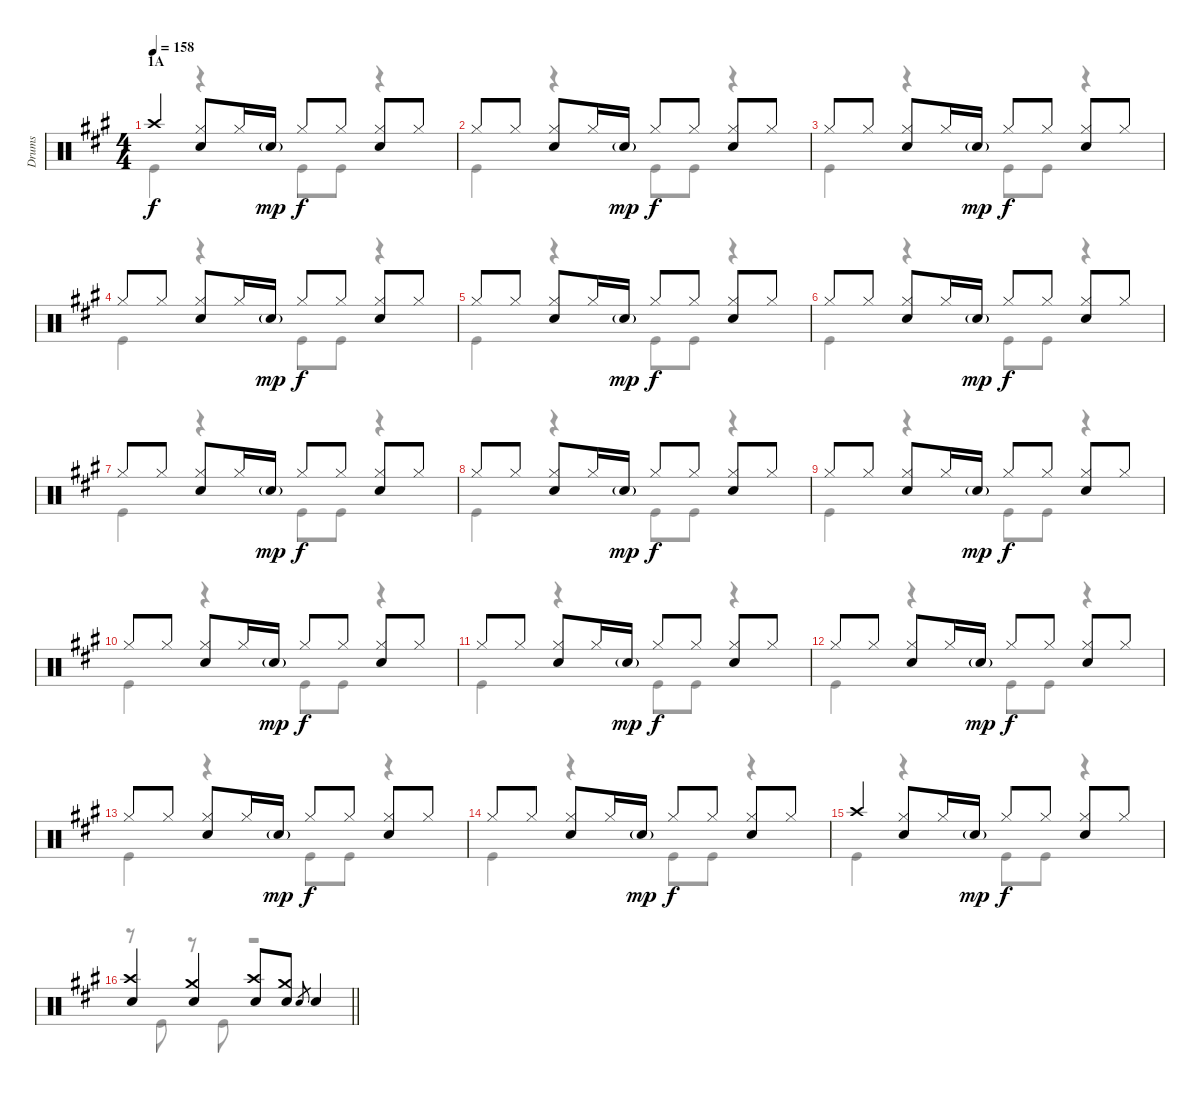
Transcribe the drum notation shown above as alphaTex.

\track ("Drums" "Drums") {instrument percussion}
\staff {score}
\articulation defaults
\voice
\ts (4 4)
\section ("" "1A")
\tempo 158
\clef neutral
\ks a "Crash high (hit)".4{dy f}
("Hi-Hat (closed)" "Snare (hit) 2").8 "Hi-Hat (closed)".16 "Snare (hit) 2"{g}.16{dy mp} "Hi-Hat (closed)".8{dy f} "Hi-Hat (closed)".8 ("Hi-Hat (closed)" "Snare (hit) 2").8 "Hi-Hat (closed)".8 |
"Hi-Hat (closed)".8 "Hi-Hat (closed)".8 ("Hi-Hat (closed)" "Snare (hit) 2").8 "Hi-Hat (closed)".16 "Snare (hit) 2"{g}.16{dy mp} "Hi-Hat (closed)".8{dy f} "Hi-Hat (closed)".8 ("Hi-Hat (closed)" "Snare (hit) 2").8 "Hi-Hat (closed)".8 |
"Hi-Hat (closed)".8 "Hi-Hat (closed)".8 ("Hi-Hat (closed)" "Snare (hit) 2").8 "Hi-Hat (closed)".16 "Snare (hit) 2"{g}.16{dy mp} "Hi-Hat (closed)".8{dy f} "Hi-Hat (closed)".8 ("Hi-Hat (closed)" "Snare (hit) 2").8 "Hi-Hat (closed)".8 |
"Hi-Hat (closed)".8 "Hi-Hat (closed)".8 ("Hi-Hat (closed)" "Snare (hit) 2").8 "Hi-Hat (closed)".16 "Snare (hit) 2"{g}.16{dy mp} "Hi-Hat (closed)".8{dy f} "Hi-Hat (closed)".8 ("Hi-Hat (closed)" "Snare (hit) 2").8 "Hi-Hat (closed)".8 |
"Hi-Hat (closed)".8 "Hi-Hat (closed)".8 ("Hi-Hat (closed)" "Snare (hit) 2").8 "Hi-Hat (closed)".16 "Snare (hit) 2"{g}.16{dy mp} "Hi-Hat (closed)".8{dy f} "Hi-Hat (closed)".8 ("Hi-Hat (closed)" "Snare (hit) 2").8 "Hi-Hat (closed)".8 |
"Hi-Hat (closed)".8 "Hi-Hat (closed)".8 ("Hi-Hat (closed)" "Snare (hit) 2").8 "Hi-Hat (closed)".16 "Snare (hit) 2"{g}.16{dy mp} "Hi-Hat (closed)".8{dy f} "Hi-Hat (closed)".8 ("Hi-Hat (closed)" "Snare (hit) 2").8 "Hi-Hat (closed)".8 |
"Hi-Hat (closed)".8 "Hi-Hat (closed)".8 ("Hi-Hat (closed)" "Snare (hit) 2").8 "Hi-Hat (closed)".16 "Snare (hit) 2"{g}.16{dy mp} "Hi-Hat (closed)".8{dy f} "Hi-Hat (closed)".8 ("Hi-Hat (closed)" "Snare (hit) 2").8 "Hi-Hat (closed)".8 |
"Hi-Hat (closed)".8 "Hi-Hat (closed)".8 ("Hi-Hat (closed)" "Snare (hit) 2").8 "Hi-Hat (closed)".16 "Snare (hit) 2"{g}.16{dy mp} "Hi-Hat (closed)".8{dy f} "Hi-Hat (closed)".8 ("Hi-Hat (closed)" "Snare (hit) 2").8 "Hi-Hat (closed)".8 |
"Hi-Hat (closed)".8 "Hi-Hat (closed)".8 ("Hi-Hat (closed)" "Snare (hit) 2").8 "Hi-Hat (closed)".16 "Snare (hit) 2"{g}.16{dy mp} "Hi-Hat (closed)".8{dy f} "Hi-Hat (closed)".8 ("Hi-Hat (closed)" "Snare (hit) 2").8 "Hi-Hat (closed)".8 |
"Hi-Hat (closed)".8 "Hi-Hat (closed)".8 ("Hi-Hat (closed)" "Snare (hit) 2").8 "Hi-Hat (closed)".16 "Snare (hit) 2"{g}.16{dy mp} "Hi-Hat (closed)".8{dy f} "Hi-Hat (closed)".8 ("Hi-Hat (closed)" "Snare (hit) 2").8 "Hi-Hat (closed)".8 |
"Hi-Hat (closed)".8 "Hi-Hat (closed)".8 ("Hi-Hat (closed)" "Snare (hit) 2").8 "Hi-Hat (closed)".16 "Snare (hit) 2"{g}.16{dy mp} "Hi-Hat (closed)".8{dy f} "Hi-Hat (closed)".8 ("Hi-Hat (closed)" "Snare (hit) 2").8 "Hi-Hat (closed)".8 |
"Hi-Hat (closed)".8 "Hi-Hat (closed)".8 ("Hi-Hat (closed)" "Snare (hit) 2").8 "Hi-Hat (closed)".16 "Snare (hit) 2"{g}.16{dy mp} "Hi-Hat (closed)".8{dy f} "Hi-Hat (closed)".8 ("Hi-Hat (closed)" "Snare (hit) 2").8 "Hi-Hat (closed)".8 |
"Hi-Hat (closed)".8 "Hi-Hat (closed)".8 ("Hi-Hat (closed)" "Snare (hit) 2").8 "Hi-Hat (closed)".16 "Snare (hit) 2"{g}.16{dy mp} "Hi-Hat (closed)".8{dy f} "Hi-Hat (closed)".8 ("Hi-Hat (closed)" "Snare (hit) 2").8 "Hi-Hat (closed)".8 |
"Hi-Hat (closed)".8 "Hi-Hat (closed)".8 ("Hi-Hat (closed)" "Snare (hit) 2").8 "Hi-Hat (closed)".16 "Snare (hit) 2"{g}.16{dy mp} "Hi-Hat (closed)".8{dy f} "Hi-Hat (closed)".8 ("Hi-Hat (closed)" "Snare (hit) 2").8 "Hi-Hat (closed)".8 |
"Crash high (hit)".4 ("Hi-Hat (closed)" "Snare (hit) 2").8 "Hi-Hat (closed)".16 "Snare (hit) 2"{g}.16{dy mp} "Hi-Hat (closed)".8{dy f} "Hi-Hat (closed)".8 ("Hi-Hat (closed)" "Snare (hit) 2").8 "Hi-Hat (closed)".8 |
\barLineRight lightlight
("Crash high (hit)" "Snare (hit) 2").4 ("Crash medium (hit)" "Snare (hit) 2").4 ("Crash high (hit)" "Snare (hit) 2").8 ("Crash medium (hit)" "Snare (hit) 2").8 "Snare (hit) 2".8{gr} "Snare (hit) 2".4
\voice
\clef neutral
\ottava regular
\simile none
\ks a "Kick (hit)".4{dy f}
r.4 "Kick (hit)".8 "Kick (hit)".8 r.4 |
"Kick (hit)".4 r.4 "Kick (hit)".8 "Kick (hit)".8 r.4 |
"Kick (hit)".4 r.4 "Kick (hit)".8 "Kick (hit)".8 r.4 |
"Kick (hit)".4 r.4 "Kick (hit)".8 "Kick (hit)".8 r.4 |
"Kick (hit)".4 r.4 "Kick (hit)".8 "Kick (hit)".8 r.4 |
"Kick (hit)".4 r.4 "Kick (hit)".8 "Kick (hit)".8 r.4 |
"Kick (hit)".4 r.4 "Kick (hit)".8 "Kick (hit)".8 r.4 |
"Kick (hit)".4 r.4 "Kick (hit)".8 "Kick (hit)".8 r.4 |
"Kick (hit)".4 r.4 "Kick (hit)".8 "Kick (hit)".8 r.4 |
"Kick (hit)".4 r.4 "Kick (hit)".8 "Kick (hit)".8 r.4 |
"Kick (hit)".4 r.4 "Kick (hit)".8 "Kick (hit)".8 r.4 |
"Kick (hit)".4 r.4 "Kick (hit)".8 "Kick (hit)".8 r.4 |
"Kick (hit)".4 r.4 "Kick (hit)".8 "Kick (hit)".8 r.4 |
"Kick (hit)".4 r.4 "Kick (hit)".8 "Kick (hit)".8 r.4 |
"Kick (hit)".4 r.4 "Kick (hit)".8 "Kick (hit)".8 r.4 |
\barLineRight lightlight
r.8 "Kick (hit)".8 r.8 "Kick (hit)".8 r.2
